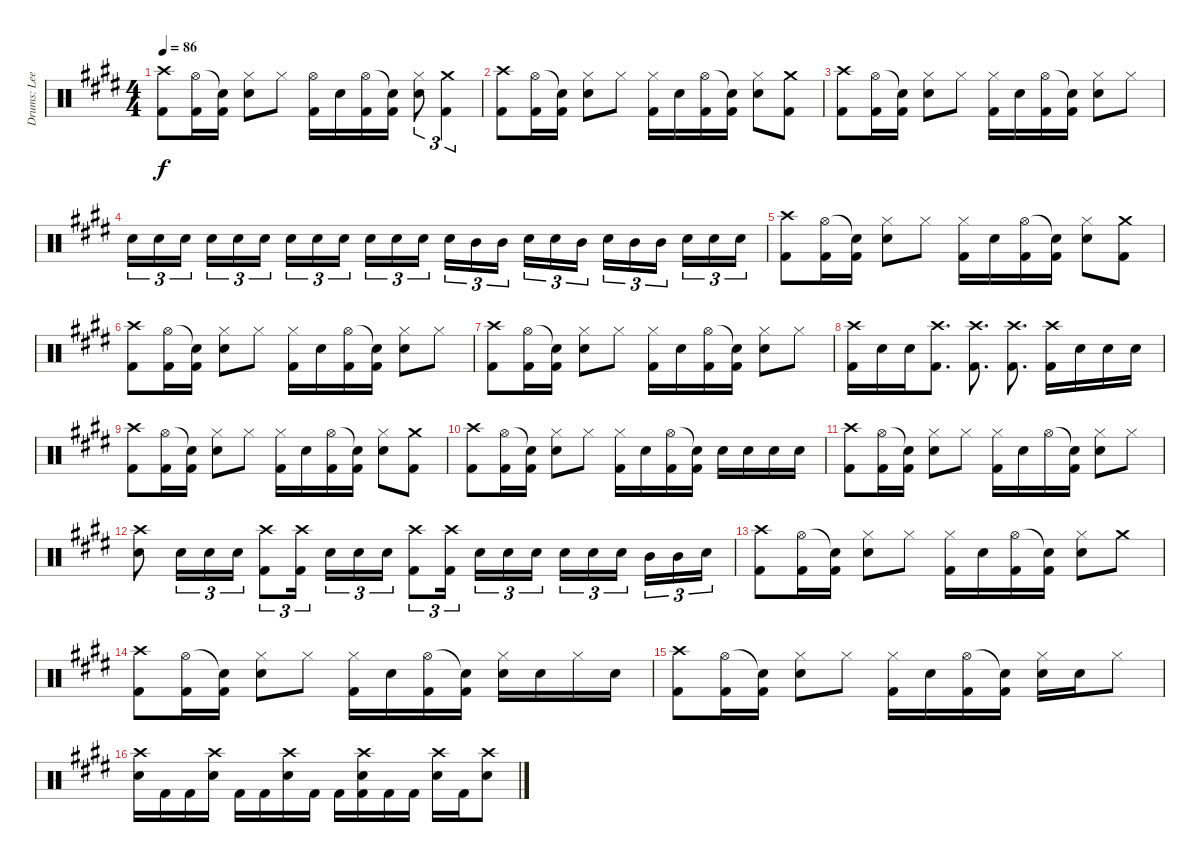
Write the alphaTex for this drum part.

\track ("Drums: Lee" "Drums: Lee") {instrument percussion}
\staff {score}
\articulation defaults
\ts (4 4)
\tempo 86
\clef neutral
\ks c#minor
("Crash high (hit)" "Kick (hit) 2").8{dy f} ("Hi-Hat (open)" "Kick (hit) 2").16 ("Snare (hit)"{t} "Kick (hit) 2").16 ("Hi-Hat (closed)" "Snare (hit) 2").8 "Hi-Hat (closed)".8 ("Hi-Hat (open)" "Kick (hit) 2").16 "Snare (hit) 2".16 ("Hi-Hat (open)" "Kick (hit) 2").16 ("Snare (hit)"{t} "Kick (hit) 2").16 ("Hi-Hat (closed)" "Snare (hit) 2").8{tu (3 2)} ("Crash medium (hit)" "Kick (hit) 2").4{tu (3 2)} |
("Crash high (hit)" "Kick (hit) 2").8 ("Hi-Hat (open)" "Kick (hit) 2").16 ("Snare (hit)"{t} "Kick (hit) 2").16 ("Hi-Hat (closed)" "Snare (hit) 2").8 "Hi-Hat (closed)".8 ("Hi-Hat (closed)" "Kick (hit) 2").16 "Snare (hit) 2".16 ("Hi-Hat (open)" "Kick (hit) 2").16 ("Snare (hit)"{t} "Kick (hit) 2").16 ("Hi-Hat (closed)" "Snare (hit) 2").8 ("Crash medium (hit)" "Kick (hit) 2").8 |
("Crash high (hit)" "Kick (hit) 2").8 ("Hi-Hat (open)" "Kick (hit) 2").16 ("Snare (hit)"{t} "Kick (hit) 2").16 ("Hi-Hat (closed)" "Snare (hit) 2").8 "Hi-Hat (closed)".8 ("Hi-Hat (closed)" "Kick (hit) 2").16 "Snare (hit) 2".16 ("Hi-Hat (open)" "Kick (hit) 2").16 ("Snare (hit)"{t} "Kick (hit) 2").16 ("Hi-Hat (closed)" "Snare (hit) 2").8 "Hi-Hat (closed)".8 |
"Snare (hit) 2".16{tu (3 2)} "Snare (hit) 2".16{tu (3 2)} "Snare (hit) 2".16{tu (3 2) beam splitsecondary} "Snare (hit) 2".16{tu (3 2)} "Snare (hit) 2".16{tu (3 2)} "Snare (hit) 2".16{tu (3 2)} "Snare (hit) 2".16{tu (3 2)} "Snare (hit) 2".16{tu (3 2)} "Snare (hit) 2".16{tu (3 2) beam splitsecondary} "Snare (hit) 2".16{tu (3 2)} "Snare (hit) 2".16{tu (3 2)} "Snare (hit) 2".16{tu (3 2)} "Snare (hit) 2".16{tu (3 2)} "Mid Tom (hit)".16{tu (3 2)} "Mid Tom (hit)".16{tu (3 2) beam splitsecondary} "Snare (hit) 2".16{tu (3 2)} "Snare (hit) 2".16{tu (3 2)} "Mid Tom (hit)".16{tu (3 2)} "Snare (hit) 2".16{tu (3 2)} "Mid Tom (hit)".16{tu (3 2)} "Mid Tom (hit)".16{tu (3 2) beam splitsecondary} "Snare (hit) 2".16{tu (3 2)} "Snare (hit) 2".16{tu (3 2)} "Snare (hit) 2".16{tu (3 2)} |
("Crash high (hit)" "Kick (hit) 2").8 ("Hi-Hat (open)" "Kick (hit) 2").16 ("Snare (hit)"{t} "Kick (hit) 2").16 ("Hi-Hat (closed)" "Snare (hit) 2").8 "Hi-Hat (closed)".8 ("Hi-Hat (closed)" "Kick (hit) 2").16 "Snare (hit) 2".16 ("Hi-Hat (open)" "Kick (hit) 2").16 ("Snare (hit)"{t} "Kick (hit) 2").16 ("Hi-Hat (closed)" "Snare (hit) 2").8 ("Crash medium (hit)" "Kick (hit) 2").8 |
("Crash high (hit)" "Kick (hit) 2").8 ("Hi-Hat (open)" "Kick (hit) 2").16 ("Snare (hit)"{t} "Kick (hit) 2").16 ("Hi-Hat (closed)" "Snare (hit) 2").8 "Hi-Hat (closed)".8 ("Hi-Hat (closed)" "Kick (hit) 2").16 "Snare (hit) 2".16 ("Hi-Hat (open)" "Kick (hit) 2").16 ("Snare (hit)"{t} "Kick (hit) 2").16 ("Hi-Hat (closed)" "Snare (hit) 2").8 "Hi-Hat (closed)".8 |
("Crash high (hit)" "Kick (hit) 2").8 ("Hi-Hat (open)" "Kick (hit) 2").16 ("Snare (hit)"{t} "Kick (hit) 2").16 ("Hi-Hat (closed)" "Snare (hit) 2").8 "Hi-Hat (closed)".8 ("Hi-Hat (closed)" "Kick (hit) 2").16 "Snare (hit) 2".16 ("Hi-Hat (open)" "Kick (hit) 2").16 ("Snare (hit)"{t} "Kick (hit) 2").16 ("Hi-Hat (closed)" "Snare (hit) 2").8 "Hi-Hat (closed)".8 |
("Crash high (hit)" "Kick (hit) 2").16 "Snare (hit) 2".16 "Snare (hit) 2".16 ("Crash high (hit)" "Kick (hit) 2").8{d} ("Crash high (hit)" "Kick (hit) 2").8{d} ("Crash high (hit)" "Kick (hit) 2").8{d} ("Crash high (hit)" "Kick (hit) 2").16 "Snare (hit) 2".16 "Snare (hit) 2".16 "Snare (hit) 2".16 |
("Crash high (hit)" "Kick (hit) 2").8 ("Hi-Hat (open)" "Kick (hit) 2").16 ("Snare (hit)"{t} "Kick (hit) 2").16 ("Hi-Hat (closed)" "Snare (hit) 2").8 "Hi-Hat (closed)".8 ("Hi-Hat (closed)" "Kick (hit) 2").16 "Snare (hit) 2".16 ("Hi-Hat (open)" "Kick (hit) 2").16 ("Snare (hit)"{t} "Kick (hit) 2").16 ("Hi-Hat (closed)" "Snare (hit) 2").8 ("Crash medium (hit)" "Kick (hit) 2").8 |
("Crash high (hit)" "Kick (hit) 2").8 ("Hi-Hat (open)" "Kick (hit) 2").16 ("Snare (hit)"{t} "Kick (hit) 2").16 ("Hi-Hat (closed)" "Snare (hit) 2").8 "Hi-Hat (closed)".8 ("Hi-Hat (closed)" "Kick (hit) 2").16 "Snare (hit) 2".16 ("Hi-Hat (open)" "Kick (hit) 2").16 ("Snare (hit)"{t} "Kick (hit) 2").16 "Snare (hit) 2".16 "Snare (hit) 2".16 "Snare (hit) 2".16 "Snare (hit) 2".16 |
("Crash high (hit)" "Kick (hit) 2").8 ("Hi-Hat (open)" "Kick (hit) 2").16 ("Snare (hit)"{t} "Kick (hit) 2").16 ("Hi-Hat (closed)" "Snare (hit) 2").8 "Hi-Hat (closed)".8 ("Hi-Hat (closed)" "Kick (hit) 2").16 "Snare (hit) 2".16 "Hi-Hat (open)".16 ("Snare (hit)"{t} "Kick (hit) 2").16 ("Hi-Hat (closed)" "Snare (hit) 2").8 "Hi-Hat (closed)".8 |
("Crash high (hit)" "Snare (hit) 2").8 "Snare (hit) 2".16{tu (3 2)} "Snare (hit) 2".16{tu (3 2)} "Snare (hit) 2".16{tu (3 2)} ("Crash high (hit)" "Kick (hit) 2").8{tu (3 2)} ("Crash high (hit)" "Kick (hit) 2").16{tu (3 2) beam splitsecondary} "Snare (hit) 2".16{tu (3 2)} "Snare (hit) 2".16{tu (3 2)} "Snare (hit) 2".16{tu (3 2)} ("Crash high (hit)" "Kick (hit) 2").8{tu (3 2)} ("Crash high (hit)" "Kick (hit) 2").16{tu (3 2) beam splitsecondary} "Snare (hit) 2".16{tu (3 2)} "Snare (hit) 2".16{tu (3 2)} "Snare (hit) 2".16{tu (3 2)} "Snare (hit) 2".16{tu (3 2)} "Snare (hit) 2".16{tu (3 2)} "Snare (hit) 2".16{tu (3 2) beam splitsecondary} "Mid Tom (hit)".16{tu (3 2)} "Mid Tom (hit)".16{tu (3 2)} "Snare (hit) 2".16{tu (3 2)} |
("Crash high (hit)" "Kick (hit) 2").8 ("Hi-Hat (open)" "Kick (hit) 2").16 ("Snare (hit)"{t} "Kick (hit) 2").16 ("Hi-Hat (closed)" "Snare (hit) 2").8 "Hi-Hat (closed)".8 ("Hi-Hat (closed)" "Kick (hit) 2").16 "Snare (hit) 2".16 ("Hi-Hat (open)" "Kick (hit) 2").16 ("Snare (hit)"{t} "Kick (hit) 2").16 ("Hi-Hat (closed)" "Snare (hit) 2").8 "Crash medium (hit)".8 |
("Crash high (hit)" "Kick (hit) 2").8 ("Hi-Hat (open)" "Kick (hit) 2").16 ("Snare (hit)"{t} "Kick (hit) 2").16 ("Hi-Hat (closed)" "Snare (hit) 2").8 "Hi-Hat (closed)".8 ("Hi-Hat (closed)" "Kick (hit) 2").16 "Snare (hit) 2".16 ("Hi-Hat (open)" "Kick (hit) 2").16 ("Snare (hit)"{t} "Kick (hit) 2").16 ("Hi-Hat (closed)" "Snare (hit) 2").16 "Snare (hit) 2".16 "Hi-Hat (closed)".16 "Snare (hit) 2".16 |
("Crash high (hit)" "Kick (hit) 2").8 ("Hi-Hat (open)" "Kick (hit) 2").16 ("Snare (hit)"{t} "Kick (hit) 2").16 ("Hi-Hat (closed)" "Snare (hit) 2").8 "Hi-Hat (closed)".8 ("Hi-Hat (closed)" "Kick (hit) 2").16 "Snare (hit) 2".16 ("Hi-Hat (open)" "Kick (hit) 2").16 ("Snare (hit)"{t} "Kick (hit) 2").16 ("Hi-Hat (closed)" "Snare (hit) 2").16 "Snare (hit) 2".16 "Hi-Hat (closed)".8 |
("Crash high (hit)" "Snare (hit) 2").16 "Kick (hit) 2".16 "Kick (hit) 2".16 ("Crash high (hit)" "Snare (hit) 2").16 "Kick (hit) 2".16 "Kick (hit) 2".16 ("Crash high (hit)" "Snare (hit) 2").16 "Kick (hit) 2".16 "Kick (hit) 2".16 ("Crash high (hit)" "Snare (hit) 2" "Kick (hit) 2").16 "Kick (hit) 2".16 "Kick (hit) 2".16 ("Crash high (hit)" "Snare (hit) 2").16 "Kick (hit) 2".16 ("Crash high (hit)" "Snare (hit) 2").8
